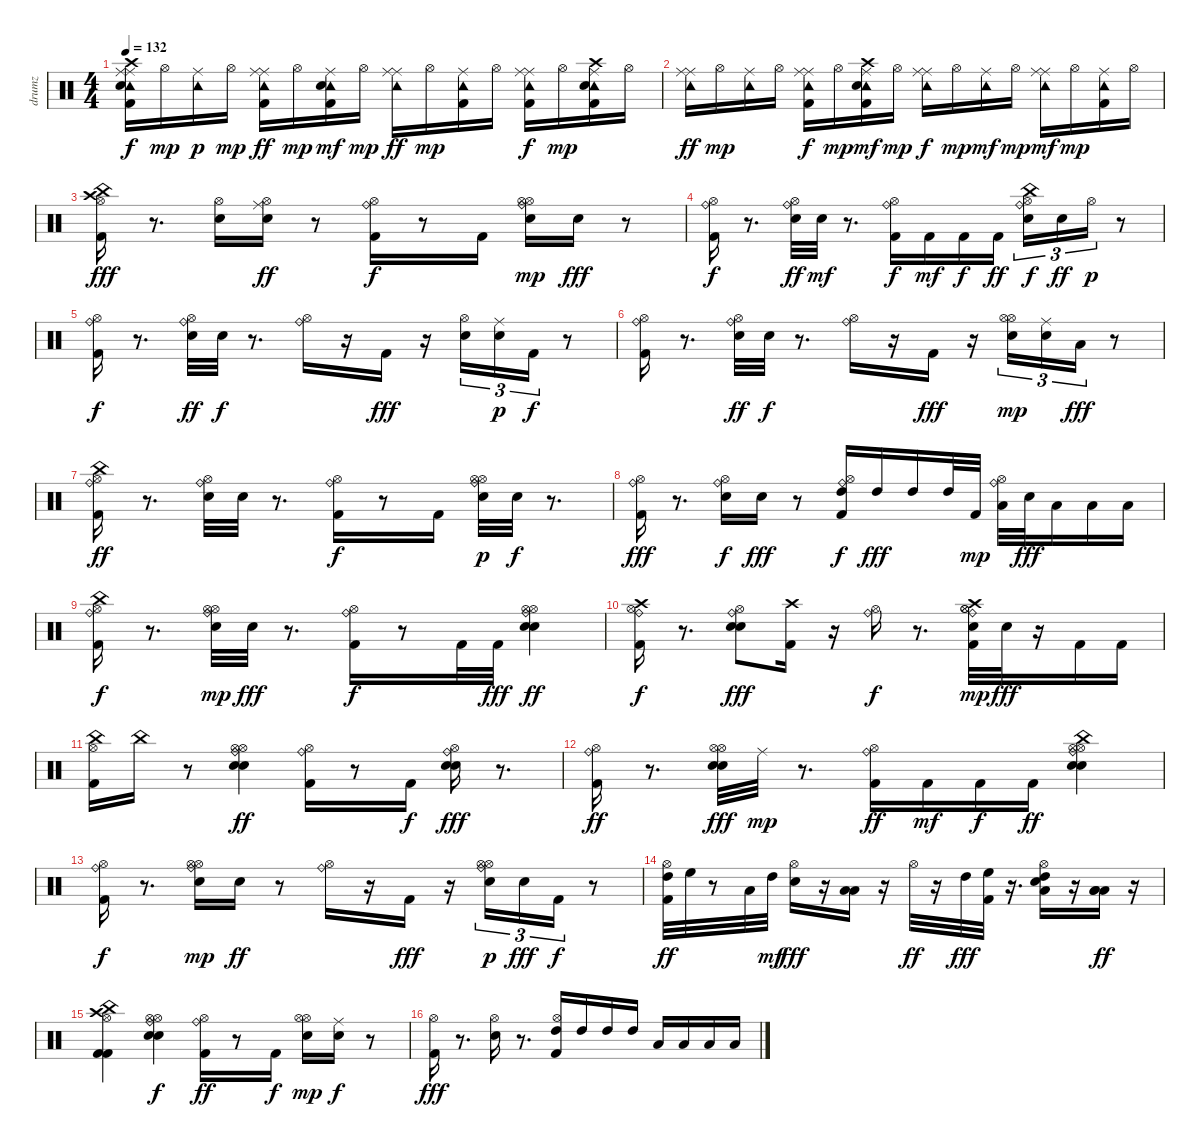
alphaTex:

\track ("drumz" "drumz") {instrument percussion}
\staff {score}
\articulation defaults
\ts (4 4)
\tempo 132
\clef neutral
\ks c
("Tambourine (hit)" "Ride (middle)" "Crash high (hit)" "Snare (hit) 2" "Kick (hit) 2" "Ride (middle)").16{dy f} "Hi-Hat (open)".16{dy mp} ("Tambourine (hit)" "Ride (middle)").16{dy p} "Hi-Hat (open)".16{dy mp} ("Tambourine (hit)" "Ride (middle)" "Kick (hit) 2" "Ride (middle)").16{dy ff} "Hi-Hat (open)".16{dy mp} ("Tambourine (hit)" "Snare (hit) 2" "Kick (hit) 2" "Ride (middle)").16{dy mf} "Hi-Hat (open)".16{dy mp} ("Tambourine (hit)" "Ride (middle)" "Ride (middle)").16{dy ff} "Hi-Hat (open)".16{dy mp} ("Tambourine (hit)" "Kick (hit) 2" "Ride (middle)").16 "Hi-Hat (open)".16 ("Tambourine (hit)" "Ride (middle)" "Kick (hit) 2" "Ride (middle)").16{dy f} "Hi-Hat (open)".16{dy mp} ("Tambourine (hit)" "Crash high (hit)" "Snare (hit) 2" "Kick (hit) 2" "Ride (middle)").16 "Hi-Hat (open)".16 |
("Tambourine (hit)" "Ride (middle)" "Ride (middle)").16{dy ff} "Hi-Hat (open)".16{dy mp} ("Tambourine (hit)" "Ride (middle)").16 "Hi-Hat (open)".16 ("Tambourine (hit)" "Ride (middle)" "Kick (hit) 2" "Ride (middle)").16{dy f} "Hi-Hat (open)".16{dy mp} ("Tambourine (hit)" "Crash high (hit)" "Snare (hit) 2" "Kick (hit) 2" "Ride (middle)").16{dy mf} "Hi-Hat (open)".16{dy mp} ("Tambourine (hit)" "Ride (middle)" "Ride (middle)").16{dy f} "Hi-Hat (open)".16{dy mp} ("Tambourine (hit)" "Ride (middle)").16{dy mf} "Hi-Hat (open)".16{dy mp} ("Tambourine (hit)" "Ride (middle)" "Ride (middle)").16{dy mf} "Hi-Hat (open)".16{dy mp} ("Tambourine (hit)" "Kick (hit) 2" "Ride (middle)").16 "Hi-Hat (open)".16 |
("China (hit)" "Hi-Hat (open)" "Kick (hit) 2" "Crash high (hit)").16{dy fff} r.8{d} ("Hi-Hat (open)" "Snare (hit) 2").16 ("Snare (hit) 2" "Hi-Hat (open)" "Ride (middle)").16{dy ff} r.8 ("Hi-Hat (open)" "Kick (hit) 2" "Ride (bell)").16{dy f} r.8 "Kick (hit) 2".16 ("Hi-Hat (open)" "Snare (hit) 2" "Ride (bell)" "Hi-Hat (open)").16{dy mp} "Snare (hit) 2".16{dy fff} r.8 |
("Hi-Hat (open)" "Kick (hit) 2" "Ride (bell)").16{dy f} r.8{d} ("Hi-Hat (open)" "Snare (hit) 2" "Ride (bell)").32{dy ff} "Snare (hit) 2".32{dy mf} r.8{d} ("Hi-Hat (open)" "Kick (hit) 2" "Ride (bell)").16{dy f} "Kick (hit) 2".16{dy mf} "Kick (hit) 2".16{dy f} "Kick (hit) 2".16{dy ff} ("Hi-Hat (open)" "China (hit)" "Snare (hit) 2" "Ride (bell)").16{tu (3 2) dy f} "Snare (hit) 2".16{tu (3 2) dy ff} "Hi-Hat (open)".16{tu (3 2) dy p} r.8 |
("Hi-Hat (open)" "Kick (hit) 2" "Ride (bell)").16{dy f} r.8{d} ("Hi-Hat (open)" "Snare (hit) 2" "Ride (bell)").32{dy ff} "Snare (hit) 2".32{dy f} r.8{d} ("Hi-Hat (open)" "Ride (bell)").16 r.16 "Kick (hit) 2".16{dy fff} r.16 ("Hi-Hat (open)" "Snare (hit) 2").16{tu (3 2)} ("Snare (hit) 2" "Ride (middle)").16{tu (3 2) dy p} "Kick (hit) 2".16{tu (3 2) dy f} r.8 |
("Hi-Hat (open)" "Kick (hit) 2" "Ride (bell)").16 r.8{d} ("Hi-Hat (open)" "Snare (hit) 2" "Ride (bell)").32{dy ff} "Snare (hit) 2".32{dy f} r.8{d} ("Hi-Hat (open)" "Ride (bell)").16 r.16 "Kick (hit) 2".16{dy fff} r.16 ("Hi-Hat (open)" "Snare (hit) 2" "Hi-Hat (open)").16{tu (3 2) dy mp} ("Electric Snare (hit)" "Ride (middle)").16{tu (3 2)} "Low Tom (hit)".16{tu (3 2) dy fff} r.8 |
("China (hit)" "Hi-Hat (open)" "Kick (hit) 2" "Ride (bell)").16{dy ff} r.8{d} ("Hi-Hat (open)" "Snare (hit) 2" "Ride (bell)").32 "Snare (hit) 2".32 r.8{d} ("Hi-Hat (open)" "Kick (hit) 2" "Ride (bell)").16{dy f} r.8 "Kick (hit) 2".16 ("Hi-Hat (open)" "Snare (hit) 2" "Ride (bell)" "Hi-Hat (open)").32{dy p} "Snare (hit) 2".32{dy f} r.8{d} |
("Hi-Hat (open)" "Kick (hit) 2" "Ride (bell)").16{dy fff} r.8{d} ("Hi-Hat (open)" "Snare (hit) 2" "Ride (bell)").16{dy f} "Snare (hit) 2".16{dy fff} r.8 ("High Tom (hit)" "Hi-Hat (open)" "Kick (hit) 2" "Ride (bell)").16{dy f} "High Tom (hit)".16{dy fff} "High Tom (hit)".16 "High Tom (hit)".32 "Kick (hit) 2".32{dy mp} ("Low Tom (hit)" "Ride (bell)" "Hi-Hat (open)").32 "Snare (hit) 2".32{dy fff} "Low Tom (hit)".16 "Low Floor Tom (hit)".16 "Low Floor Tom (hit)".16 |
("China (hit)" "Hi-Hat (open)" "Kick (hit) 2" "Ride (bell)").16{dy f} r.8{d} ("Hi-Hat (open)" "Snare (hit) 2" "Ride (bell)" "Hi-Hat (open)").32{dy mp} "Electric Snare (hit)".32{dy fff} r.8{d} ("Hi-Hat (open)" "Kick (hit) 2" "Ride (bell)").16{dy f} r.8 "Kick (hit) 2".32 "Kick (hit) 2".32{dy fff} ("Hi-Hat (open)" "Snare (hit) 2" "Ride (bell)" "Hi-Hat (open)" "Snare (hit) 2").4{dy ff} |
("Crash high (hit)" "Hi-Hat (open)" "Kick (hit) 2" "Ride (bell)").16{dy f} r.8{d} ("Hi-Hat (open)" "Snare (hit) 2" "Ride (bell)" "Snare (hit) 2").8{dy fff} ("Crash high (hit)" "Kick (hit) 2").16 r.16 ("Hi-Hat (open)" "Ride (bell)").16{dy f} r.8{d} ("Crash high (hit)" "Hi-Hat (open)" "Snare (hit) 2" "Kick (hit) 2" "Ride (bell)" "Hi-Hat (open)").32{dy mp} "Electric Snare (hit)".32{dy fff} r.16 "Kick (hit) 2".16 "Kick (hit) 2".16 |
("China (hit)" "Hi-Hat (open)" "Kick (hit) 2").16 "China (hit)".16 r.8 ("Hi-Hat (open)" "Snare (hit) 2" "Ride (bell)" "Hi-Hat (open)" "Electric Snare (hit)").4{dy ff} ("Hi-Hat (open)" "Kick (hit) 2" "Ride (bell)").16 r.8 "Kick (hit) 2".16{dy f} ("Hi-Hat (open)" "Snare (hit) 2" "Ride (bell)" "Electric Snare (hit)").16{dy fff} r.8{d} |
("Hi-Hat (open)" "Kick (hit) 2" "Ride (bell)").16{dy ff} r.8{d} ("Hi-Hat (open)" "Snare (hit) 2" "Hi-Hat (open)" "Electric Snare (hit)").32{dy fff} "Ride (middle)".32{dy mp} r.8{d} ("Hi-Hat (open)" "Kick (hit) 2" "Ride (bell)").16{dy ff} "Kick (hit) 2".16{dy mf} "Kick (hit) 2".16{dy f} "Kick (hit) 2".16{dy ff} ("Hi-Hat (open)" "China (hit)" "Snare (hit) 2" "Ride (bell)" "Hi-Hat (open)" "Electric Snare (hit)").4 |
("Hi-Hat (open)" "Kick (hit) 2" "Ride (bell)").16{dy f} r.8{d} ("Hi-Hat (open)" "Snare (hit) 2" "Ride (bell)" "Hi-Hat (open)").16{dy mp} "Electric Snare (hit)".16{dy ff} r.8 ("Hi-Hat (open)" "Ride (bell)").16 r.16 "Kick (hit) 2".16{dy fff} r.16 ("Hi-Hat (open)" "Snare (hit) 2" "Ride (bell)" "Hi-Hat (open)").16{tu (3 2) dy p} "Electric Snare (hit)".16{tu (3 2) dy fff} "Kick (hit) 2".16{tu (3 2) dy f} r.8 |
("Hi-Hat (open)" "Kick (hit) 2" "High Tom (hit)").32{dy ff} "High Floor Tom (hit)".32 r.8 "Low Tom (hit)".32 "High Tom (hit)".32{dy mf} ("Hi-Hat (open)" "Snare (hit) 2").16{dy fff} r.16 ("Low Floor Tom (hit)" "Low Tom (hit)").16 r.16 "Hi-Hat (open)".32{dy ff} r.16 "High Tom (hit)".32{dy fff} ("High Floor Tom (hit)" "Kick (hit) 2").32 r.16{d} ("High Tom (hit)" "Low Tom (hit)" "Hi-Hat (open)" "Snare (hit) 2").16 r.16 ("Low Tom (hit)" "Low Tom (hit)" "Low Floor Tom (hit)").16{dy ff} r.16 |
("Kick (hit) 2" "China (hit)" "Hi-Hat (open)" "Kick (hit) 2" "Crash high (hit)").4 ("Hi-Hat (open)" "Snare (hit) 2" "Ride (bell)" "Hi-Hat (open)" "Snare (hit) 2").4{dy f} ("Hi-Hat (open)" "Kick (hit) 2" "Ride (bell)").16{dy ff} r.8 "Kick (hit) 2".16{dy f} ("Hi-Hat (open)" "Snare (hit) 2" "Hi-Hat (open)").16{dy mp} ("Electric Snare (hit)" "Ride (middle)").16{dy f} r.8 |
("Hi-Hat (open)" "Kick (hit) 2").16{dy fff} r.8{d} ("Hi-Hat (open)" "Snare (hit) 2").16 r.8{d} ("High Tom (hit)" "Hi-Hat (open)" "Kick (hit) 2").16 "High Tom (hit)".16 "High Tom (hit)".16 "High Tom (hit)".16 "Low Tom (hit)".16 "Low Tom (hit)".16 "Low Floor Tom (hit)".16 "Low Floor Tom (hit)".16
